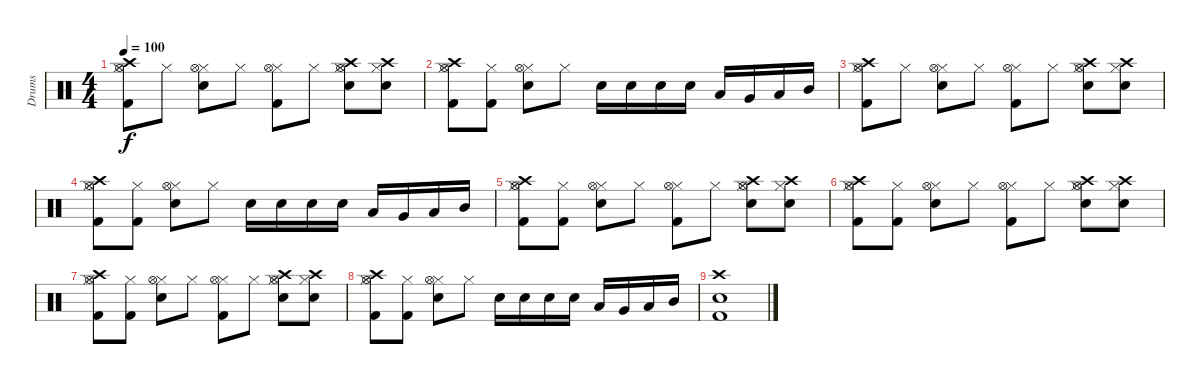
\track ("Drums" "Drums") {instrument percussion}
\staff {score}
\articulation defaults
\ts (4 4)
\tempo 100
\clef neutral
\ks c
("Crash high (hit)" "Kick (hit) 2" "Hi-Hat (closed)" "Hi-Hat (open)").8{dy f} "Hi-Hat (closed)".8 ("Electric Snare (hit)" "Hi-Hat (closed)" "Hi-Hat (open)").8 "Hi-Hat (closed)".8 ("Kick (hit) 2" "Hi-Hat (closed)" "Hi-Hat (open)").8 "Hi-Hat (closed)".8 ("Crash high (hit)" "Electric Snare (hit)" "Hi-Hat (closed)" "Hi-Hat (open)").8 ("Crash high (hit)" "Electric Snare (hit)" "Hi-Hat (closed)").8 |
("Crash high (hit)" "Kick (hit) 2" "Hi-Hat (closed)" "Hi-Hat (open)").8 ("Kick (hit) 2" "Hi-Hat (closed)").8 ("Electric Snare (hit)" "Hi-Hat (closed)" "Hi-Hat (open)").8 "Hi-Hat (closed)".8 "Electric Snare (hit)".16 "Electric Snare (hit)".16 "Electric Snare (hit)".16 "Electric Snare (hit)".16 "Low Floor Tom (hit)".16 "Very Low Tom (hit)".16 "Low Tom (hit)".16 "Mid Tom (hit)".16 |
("Crash high (hit)" "Kick (hit) 2" "Hi-Hat (closed)" "Hi-Hat (open)").8 "Hi-Hat (closed)".8 ("Electric Snare (hit)" "Hi-Hat (closed)" "Hi-Hat (open)").8 "Hi-Hat (closed)".8 ("Kick (hit) 2" "Hi-Hat (closed)" "Hi-Hat (open)").8 "Hi-Hat (closed)".8 ("Crash high (hit)" "Electric Snare (hit)" "Hi-Hat (closed)" "Hi-Hat (open)").8 ("Crash high (hit)" "Electric Snare (hit)" "Hi-Hat (closed)").8 |
("Crash high (hit)" "Kick (hit) 2" "Hi-Hat (closed)" "Hi-Hat (open)").8 ("Kick (hit) 2" "Hi-Hat (closed)").8 ("Electric Snare (hit)" "Hi-Hat (closed)" "Hi-Hat (open)").8 "Hi-Hat (closed)".8 "Electric Snare (hit)".16 "Electric Snare (hit)".16 "Electric Snare (hit)".16 "Electric Snare (hit)".16 "Low Floor Tom (hit)".16 "Very Low Tom (hit)".16 "Low Tom (hit)".16 "Mid Tom (hit)".16 |
("Crash high (hit)" "Kick (hit) 2" "Hi-Hat (closed)" "Hi-Hat (open)").8 ("Kick (hit) 2" "Hi-Hat (closed)").8 ("Electric Snare (hit)" "Hi-Hat (closed)" "Hi-Hat (open)").8 "Hi-Hat (closed)".8 ("Kick (hit) 2" "Hi-Hat (closed)" "Hi-Hat (open)").8 "Hi-Hat (closed)".8 ("Crash high (hit)" "Electric Snare (hit)" "Hi-Hat (closed)" "Hi-Hat (open)").8 ("Crash high (hit)" "Electric Snare (hit)" "Hi-Hat (closed)").8 |
("Crash high (hit)" "Kick (hit) 2" "Hi-Hat (closed)" "Hi-Hat (open)").8 ("Kick (hit) 2" "Hi-Hat (closed)").8 ("Electric Snare (hit)" "Hi-Hat (closed)" "Hi-Hat (open)").8 "Hi-Hat (closed)".8 ("Kick (hit) 2" "Hi-Hat (closed)" "Hi-Hat (open)").8 "Hi-Hat (closed)".8 ("Crash high (hit)" "Electric Snare (hit)" "Hi-Hat (closed)" "Hi-Hat (open)").8 ("Crash high (hit)" "Electric Snare (hit)" "Hi-Hat (closed)").8 |
("Crash high (hit)" "Kick (hit) 2" "Hi-Hat (closed)" "Hi-Hat (open)").8 ("Kick (hit) 2" "Hi-Hat (closed)").8 ("Electric Snare (hit)" "Hi-Hat (closed)" "Hi-Hat (open)").8 "Hi-Hat (closed)".8 ("Kick (hit) 2" "Hi-Hat (closed)" "Hi-Hat (open)").8 "Hi-Hat (closed)".8 ("Crash high (hit)" "Electric Snare (hit)" "Hi-Hat (closed)" "Hi-Hat (open)").8 ("Crash high (hit)" "Electric Snare (hit)" "Hi-Hat (closed)").8 |
("Crash high (hit)" "Kick (hit) 2" "Hi-Hat (closed)" "Hi-Hat (open)").8 ("Kick (hit) 2" "Hi-Hat (closed)").8 ("Electric Snare (hit)" "Hi-Hat (closed)" "Hi-Hat (open)").8 "Hi-Hat (closed)".8 "Electric Snare (hit)".16 "Electric Snare (hit)".16 "Electric Snare (hit)".16 "Electric Snare (hit)".16 "Low Floor Tom (hit)".16 "Very Low Tom (hit)".16 "Low Tom (hit)".16 "Mid Tom (hit)".16 |
("Crash high (hit)" "Kick (hit) 2" "Electric Snare (hit)").1
